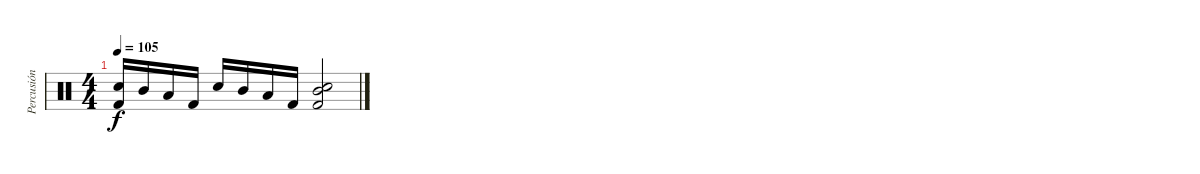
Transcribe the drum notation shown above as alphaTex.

\track ("Percusión" "Percusión") {instrument percussion}
\staff {score}
\articulation defaults
\ts (4 4)
\tempo 105
\clef neutral
\ks c
("Kick (hit) 2" "Snare (hit) 2").16{dy f} "Mid Tom (hit)".16 "Low Tom (hit)".16 "Kick (hit) 2".16 "Snare (hit) 2".16 "Mid Tom (hit)".16 "Low Tom (hit)".16 "Kick (hit) 2".16 ("Kick (hit) 2" "Snare (hit) 2" "Mid Tom (hit)").2
